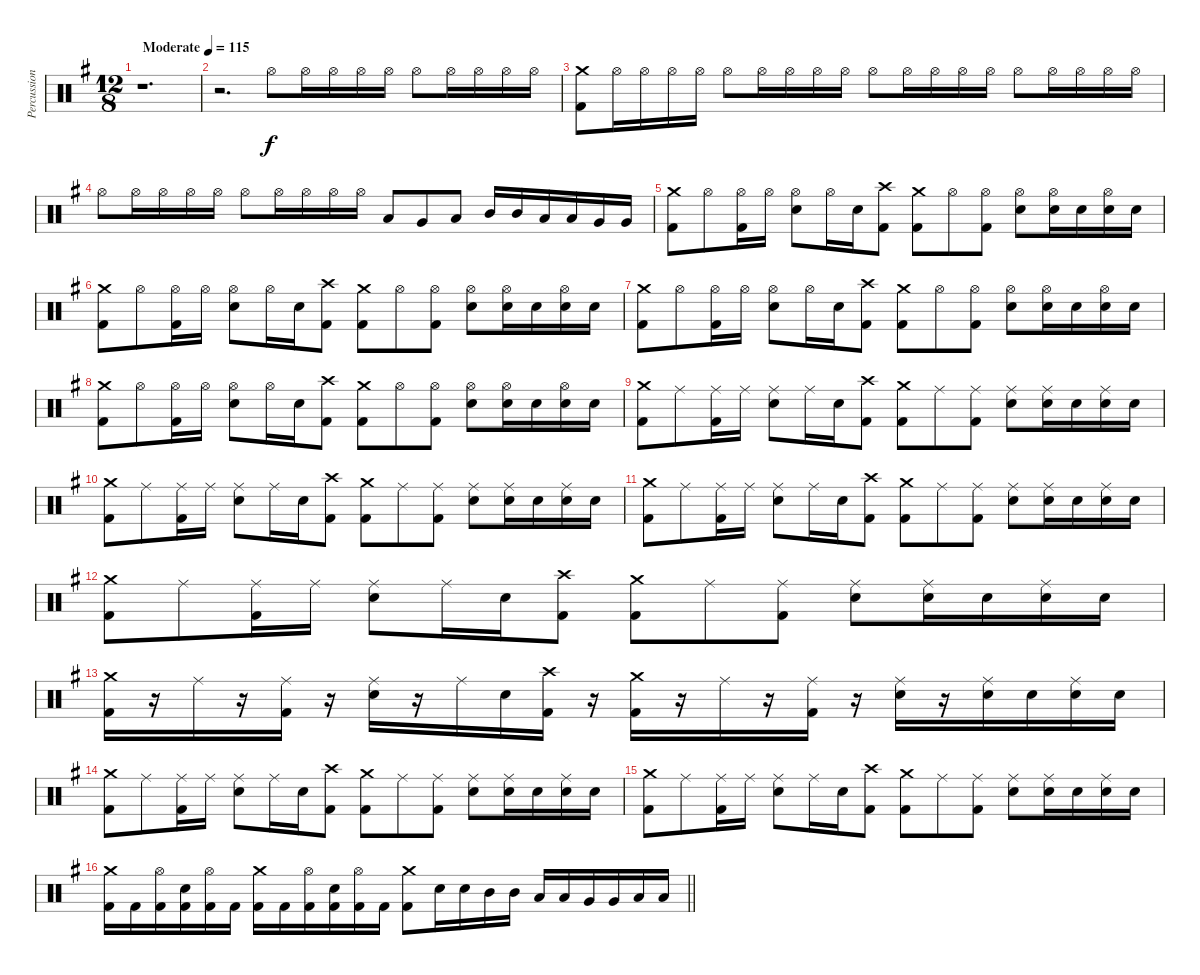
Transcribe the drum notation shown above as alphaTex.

\track ("Percussion" "Percussion") {instrument percussion}
\staff {score}
\articulation defaults
\ts (12 8)
\tempo (115 "Moderate")
\clef neutral
\ks g
r.1{d dy f} |
r.2{d} "Hi-Hat (open)".8 "Hi-Hat (open)".16 "Hi-Hat (open)".16 "Hi-Hat (open)".16 "Hi-Hat (open)".16 "Hi-Hat (open)".8 "Hi-Hat (open)".16 "Hi-Hat (open)".16 "Hi-Hat (open)".16 "Hi-Hat (open)".16 |
("Crash medium (hit)" "Kick (hit) 2").8 "Hi-Hat (open)".16 "Hi-Hat (open)".16 "Hi-Hat (open)".16 "Hi-Hat (open)".16 "Hi-Hat (open)".8 "Hi-Hat (open)".16 "Hi-Hat (open)".16 "Hi-Hat (open)".16 "Hi-Hat (open)".16 "Hi-Hat (open)".8 "Hi-Hat (open)".16 "Hi-Hat (open)".16 "Hi-Hat (open)".16 "Hi-Hat (open)".16 "Hi-Hat (open)".8 "Hi-Hat (open)".16 "Hi-Hat (open)".16 "Hi-Hat (open)".16 "Hi-Hat (open)".16 |
"Hi-Hat (open)".8 "Hi-Hat (open)".16 "Hi-Hat (open)".16 "Hi-Hat (open)".16 "Hi-Hat (open)".16 "Hi-Hat (open)".8 "Hi-Hat (open)".16 "Hi-Hat (open)".16 "Hi-Hat (open)".16 "Hi-Hat (open)".16 "Low Tom (hit)".8 "Very Low Tom (hit)".8 "Low Floor Tom (hit)".8 "Mid Tom (hit)".16 "Mid Tom (hit)".16 "Low Tom (hit)".16 "Low Tom (hit)".16 "Very Low Tom (hit)".16 "Very Low Tom (hit)".16 |
("Crash medium (hit)" "Kick (hit) 2").8 "Hi-Hat (open)".8 ("Hi-Hat (open)" "Kick (hit) 2").16 "Hi-Hat (open)".16 ("Hi-Hat (open)" "Snare (hit) 2").8 "Hi-Hat (open)".16 "Snare (hit) 2".16 ("Crash high (hit)" "Kick (hit) 2").8 ("Crash medium (hit)" "Kick (hit) 2").8 "Hi-Hat (open)".8 ("Hi-Hat (open)" "Kick (hit) 2").8 ("Hi-Hat (open)" "Snare (hit) 2").8 ("Hi-Hat (open)" "Snare (hit) 2").16 "Snare (hit) 2".16 ("Hi-Hat (open)" "Snare (hit) 2").16 "Snare (hit) 2".16 |
("Crash medium (hit)" "Kick (hit) 2").8 "Hi-Hat (open)".8 ("Hi-Hat (open)" "Kick (hit) 2").16 "Hi-Hat (open)".16 ("Hi-Hat (open)" "Snare (hit) 2").8 "Hi-Hat (open)".16 "Snare (hit) 2".16 ("Crash high (hit)" "Kick (hit) 2").8 ("Crash medium (hit)" "Kick (hit) 2").8 "Hi-Hat (open)".8 ("Hi-Hat (open)" "Kick (hit) 2").8 ("Hi-Hat (open)" "Snare (hit) 2").8 ("Hi-Hat (open)" "Snare (hit) 2").16 "Snare (hit) 2".16 ("Hi-Hat (open)" "Snare (hit) 2").16 "Snare (hit) 2".16 |
("Crash medium (hit)" "Kick (hit) 2").8 "Hi-Hat (open)".8 ("Hi-Hat (open)" "Kick (hit) 2").16 "Hi-Hat (open)".16 ("Hi-Hat (open)" "Snare (hit) 2").8 "Hi-Hat (open)".16 "Snare (hit) 2".16 ("Crash high (hit)" "Kick (hit) 2").8 ("Crash medium (hit)" "Kick (hit) 2").8 "Hi-Hat (open)".8 ("Hi-Hat (open)" "Kick (hit) 2").8 ("Hi-Hat (open)" "Snare (hit) 2").8 ("Hi-Hat (open)" "Snare (hit) 2").16 "Snare (hit) 2".16 ("Hi-Hat (open)" "Snare (hit) 2").16 "Snare (hit) 2".16 |
("Crash medium (hit)" "Kick (hit) 2").8 "Hi-Hat (open)".8 ("Hi-Hat (open)" "Kick (hit) 2").16 "Hi-Hat (open)".16 ("Hi-Hat (open)" "Snare (hit) 2").8 "Hi-Hat (open)".16 "Snare (hit) 2".16 ("Crash high (hit)" "Kick (hit) 2").8 ("Crash medium (hit)" "Kick (hit) 2").8 "Hi-Hat (open)".8 ("Hi-Hat (open)" "Kick (hit) 2").8 ("Hi-Hat (open)" "Snare (hit) 2").8 ("Hi-Hat (open)" "Snare (hit) 2").16 "Snare (hit) 2".16 ("Hi-Hat (open)" "Snare (hit) 2").16 "Snare (hit) 2".16 |
("Crash medium (hit)" "Kick (hit) 2").8 "Ride (middle)".8 ("Ride (middle)" "Kick (hit) 2").16 "Ride (middle)".16 ("Ride (middle)" "Snare (hit) 2").8 "Ride (middle)".16 "Snare (hit) 2".16 ("Crash high (hit)" "Kick (hit) 2").8 ("Crash medium (hit)" "Kick (hit) 2").8 "Ride (middle)".8 ("Ride (middle)" "Kick (hit) 2").8 ("Ride (middle)" "Snare (hit) 2").8 ("Ride (middle)" "Snare (hit) 2").16 "Snare (hit) 2".16 ("Ride (middle)" "Snare (hit) 2").16 "Snare (hit) 2".16 |
("Crash medium (hit)" "Kick (hit) 2").8 "Ride (middle)".8 ("Ride (middle)" "Kick (hit) 2").16 "Ride (middle)".16 ("Ride (middle)" "Snare (hit) 2").8 "Ride (middle)".16 "Snare (hit) 2".16 ("Crash high (hit)" "Kick (hit) 2").8 ("Crash medium (hit)" "Kick (hit) 2").8 "Ride (middle)".8 ("Ride (middle)" "Kick (hit) 2").8 ("Ride (middle)" "Snare (hit) 2").8 ("Ride (middle)" "Snare (hit) 2").16 "Snare (hit) 2".16 ("Ride (middle)" "Snare (hit) 2").16 "Snare (hit) 2".16 |
("Crash medium (hit)" "Kick (hit) 2").8 "Ride (middle)".8 ("Ride (middle)" "Kick (hit) 2").16 "Ride (middle)".16 ("Ride (middle)" "Snare (hit) 2").8 "Ride (middle)".16 "Snare (hit) 2".16 ("Crash high (hit)" "Kick (hit) 2").8 ("Crash medium (hit)" "Kick (hit) 2").8 "Ride (middle)".8 ("Ride (middle)" "Kick (hit) 2").8 ("Ride (middle)" "Snare (hit) 2").8 ("Ride (middle)" "Snare (hit) 2").16 "Snare (hit) 2".16 ("Ride (middle)" "Snare (hit) 2").16 "Snare (hit) 2".16 |
("Crash medium (hit)" "Kick (hit) 2").8 "Ride (middle)".8 ("Ride (middle)" "Kick (hit) 2").16 "Ride (middle)".16 ("Ride (middle)" "Snare (hit) 2").8 "Ride (middle)".16 "Snare (hit) 2".16 ("Crash high (hit)" "Kick (hit) 2").8 ("Crash medium (hit)" "Kick (hit) 2").8 "Ride (middle)".8 ("Ride (middle)" "Kick (hit) 2").8 ("Ride (middle)" "Snare (hit) 2").8 ("Ride (middle)" "Snare (hit) 2").16 "Snare (hit) 2".16 ("Ride (middle)" "Snare (hit) 2").16 "Snare (hit) 2".16 |
("Crash medium (hit)" "Kick (hit) 2").16 r.16 "Ride (middle)".16 r.16 ("Ride (middle)" "Kick (hit) 2").16 r.16 ("Ride (middle)" "Snare (hit) 2").16 r.16 "Ride (middle)".16 "Snare (hit) 2".16 ("Crash high (hit)" "Kick (hit) 2").16 r.16 ("Crash medium (hit)" "Kick (hit) 2").16 r.16 "Ride (middle)".16 r.16 ("Ride (middle)" "Kick (hit) 2").16 r.16 ("Ride (middle)" "Snare (hit) 2").16 r.16 ("Ride (middle)" "Snare (hit) 2").16 "Snare (hit) 2".16 ("Ride (middle)" "Snare (hit) 2").16 "Snare (hit) 2".16 |
("Crash medium (hit)" "Kick (hit) 2").8 "Ride (middle)".8 ("Ride (middle)" "Kick (hit) 2").16 "Ride (middle)".16 ("Ride (middle)" "Snare (hit) 2").8 "Ride (middle)".16 "Snare (hit) 2".16 ("Crash high (hit)" "Kick (hit) 2").8 ("Crash medium (hit)" "Kick (hit) 2").8 "Ride (middle)".8 ("Ride (middle)" "Kick (hit) 2").8 ("Ride (middle)" "Snare (hit) 2").8 ("Ride (middle)" "Snare (hit) 2").16 "Snare (hit) 2".16 ("Ride (middle)" "Snare (hit) 2").16 "Snare (hit) 2".16 |
("Crash medium (hit)" "Kick (hit) 2").8 "Ride (middle)".8 ("Ride (middle)" "Kick (hit) 2").16 "Ride (middle)".16 ("Ride (middle)" "Snare (hit) 2").8 "Ride (middle)".16 "Snare (hit) 2".16 ("Crash high (hit)" "Kick (hit) 2").8 ("Crash medium (hit)" "Kick (hit) 2").8 "Ride (middle)".8 ("Ride (middle)" "Kick (hit) 2").8 ("Ride (middle)" "Snare (hit) 2").8 ("Ride (middle)" "Snare (hit) 2").16 "Snare (hit) 2".16 ("Ride (middle)" "Snare (hit) 2").16 "Snare (hit) 2".16 |
\barLineRight lightlight
("Crash medium (hit)" "Kick (hit) 2").16 "Kick (hit) 2".16 ("Hi-Hat (open)" "Kick (hit) 2").16 ("Snare (hit) 2" "Kick (hit) 2").16 ("Hi-Hat (open)" "Kick (hit) 2").16 "Kick (hit) 2".16 ("Crash medium (hit)" "Kick (hit) 2").16 "Kick (hit) 2".16 ("Hi-Hat (open)" "Kick (hit) 2").16 ("Snare (hit) 2" "Kick (hit) 2").16 ("Hi-Hat (open)" "Kick (hit) 2").16 "Kick (hit) 2".16 ("Crash medium (hit)" "Kick (hit) 2").8 "Snare (hit) 2".16 "Snare (hit) 2".16 "Mid Tom (hit)".16 "Mid Tom (hit)".16 "Low Tom (hit)".16 "Low Tom (hit)".16 "Very Low Tom (hit)".16 "Very Low Tom (hit)".16 "Low Floor Tom (hit)".16 "Low Floor Tom (hit)".16
